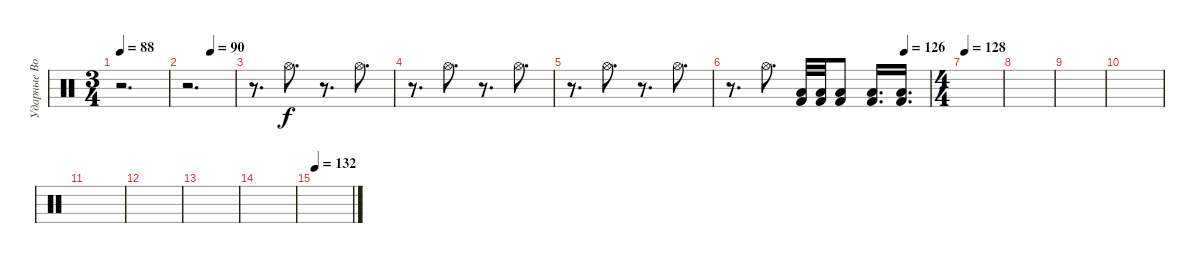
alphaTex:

\track ("Ударные Bostaph" "Ударные Bo") {instrument percussion}
\staff {score}
\articulation defaults
\ts (3 4)
\tempo 88
\clef neutral
\ks c
r.2{d dy f} |
\tempo (90 0.5)
r.2{d} |
r.8{d} "Hi-Hat (open)".8{d} r.8{d} "Hi-Hat (open)".8{d} |
r.8{d} "Hi-Hat (open)".8{d} r.8{d} "Hi-Hat (open)".8{d} |
r.8{d} "Hi-Hat (open)".8{d} r.8{d} "Hi-Hat (open)".8{d} |
\tempo (126 0.875)
r.8{d} "Hi-Hat (open)".8{d} ("Low Floor Tom (hit)" "Kick (hit) 2").32 ("Low Floor Tom (hit)" "Kick (hit) 2").32 ("Low Floor Tom (hit)" "Kick (hit) 2").8 ("Low Floor Tom (hit)" "Kick (hit) 2").16{d} ("Low Floor Tom (hit)" "Kick (hit) 2").16{d} |
\ts (4 4)
\tempo 128
|
|
|
|
|
|
|
|
\tempo 132
